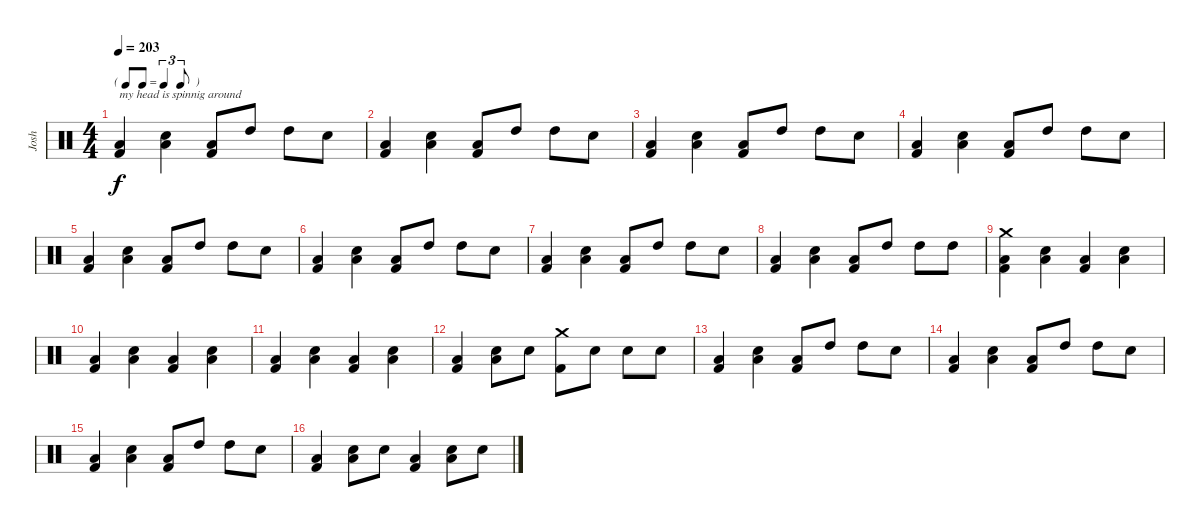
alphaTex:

\track ("Josh" "Josh") {instrument percussion}
\staff {score}
\articulation defaults
\ts (4 4)
\tf triplet8th
\tempo 203
\clef neutral
\ks c
("Low Tom (hit)" "Kick (hit) 2").4{txt "my head is spinnig around" dy f} ("Low Tom (hit)" "Electric Snare (hit)").4 ("Low Tom (hit)" "Kick (hit) 2").8 "High Tom (hit)".8 "High Tom (hit)".8 "Electric Snare (hit)".8 |
("Low Tom (hit)" "Kick (hit) 2").4 ("Low Tom (hit)" "Electric Snare (hit)").4 ("Low Tom (hit)" "Kick (hit) 2").8 "High Tom (hit)".8 "High Tom (hit)".8 "Electric Snare (hit)".8 |
("Low Tom (hit)" "Kick (hit) 2").4 ("Low Tom (hit)" "Electric Snare (hit)").4 ("Low Tom (hit)" "Kick (hit) 2").8 "High Tom (hit)".8 "High Tom (hit)".8 "Electric Snare (hit)".8 |
("Low Tom (hit)" "Kick (hit) 2").4 ("Low Tom (hit)" "Electric Snare (hit)").4 ("Low Tom (hit)" "Kick (hit) 2").8 "High Tom (hit)".8 "High Tom (hit)".8 "Electric Snare (hit)".8 |
("Low Tom (hit)" "Kick (hit) 2").4 ("Low Tom (hit)" "Electric Snare (hit)").4 ("Low Tom (hit)" "Kick (hit) 2").8 "High Tom (hit)".8 "High Tom (hit)".8 "Electric Snare (hit)".8 |
("Low Tom (hit)" "Kick (hit) 2").4 ("Low Tom (hit)" "Electric Snare (hit)").4 ("Low Tom (hit)" "Kick (hit) 2").8 "High Tom (hit)".8 "High Tom (hit)".8 "Electric Snare (hit)".8 |
("Low Tom (hit)" "Kick (hit) 2").4 ("Low Tom (hit)" "Electric Snare (hit)").4 ("Low Tom (hit)" "Kick (hit) 2").8 "High Tom (hit)".8 "High Tom (hit)".8 "Electric Snare (hit)".8 |
("Low Tom (hit)" "Kick (hit) 2").4 ("Low Tom (hit)" "Electric Snare (hit)").4 ("Low Tom (hit)" "Kick (hit) 2").8 "High Tom (hit)".8 "High Tom (hit)".8 "High Tom (hit)".8 |
("Crash medium (hit)" "Low Tom (hit)" "Kick (hit) 2").4 ("Low Tom (hit)" "Electric Snare (hit)").4 ("Low Tom (hit)" "Kick (hit) 2").4 ("Low Tom (hit)" "Electric Snare (hit)").4 |
("Low Tom (hit)" "Kick (hit) 2").4 ("Low Tom (hit)" "Electric Snare (hit)").4 ("Low Tom (hit)" "Kick (hit) 2").4 ("Low Tom (hit)" "Electric Snare (hit)").4 |
("Low Tom (hit)" "Kick (hit) 2").4 ("Low Tom (hit)" "Electric Snare (hit)").4 ("Low Tom (hit)" "Kick (hit) 2").4 ("Low Tom (hit)" "Electric Snare (hit)").4 |
("Low Tom (hit)" "Kick (hit) 2").4 ("Low Tom (hit)" "Electric Snare (hit)").8 "Electric Snare (hit)".8 ("Crash medium (hit)" "Kick (hit) 2").8 "Electric Snare (hit)".8 "Electric Snare (hit)".8 "Electric Snare (hit)".8 |
("Low Tom (hit)" "Kick (hit) 2").4 ("Low Tom (hit)" "Electric Snare (hit)").4 ("Low Tom (hit)" "Kick (hit) 2").8 "High Tom (hit)".8 "High Tom (hit)".8 "Electric Snare (hit)".8 |
("Low Tom (hit)" "Kick (hit) 2").4 ("Low Tom (hit)" "Electric Snare (hit)").4 ("Low Tom (hit)" "Kick (hit) 2").8 "High Tom (hit)".8 "High Tom (hit)".8 "Electric Snare (hit)".8 |
("Low Tom (hit)" "Kick (hit) 2").4 ("Low Tom (hit)" "Electric Snare (hit)").4 ("Low Tom (hit)" "Kick (hit) 2").8 "High Tom (hit)".8 "High Tom (hit)".8 "Electric Snare (hit)".8 |
("Low Tom (hit)" "Kick (hit) 2").4 ("Low Tom (hit)" "Electric Snare (hit)").8 "Electric Snare (hit)".8 ("Low Tom (hit)" "Kick (hit) 2").4 ("Low Tom (hit)" "Electric Snare (hit)").8 "Electric Snare (hit)".8
